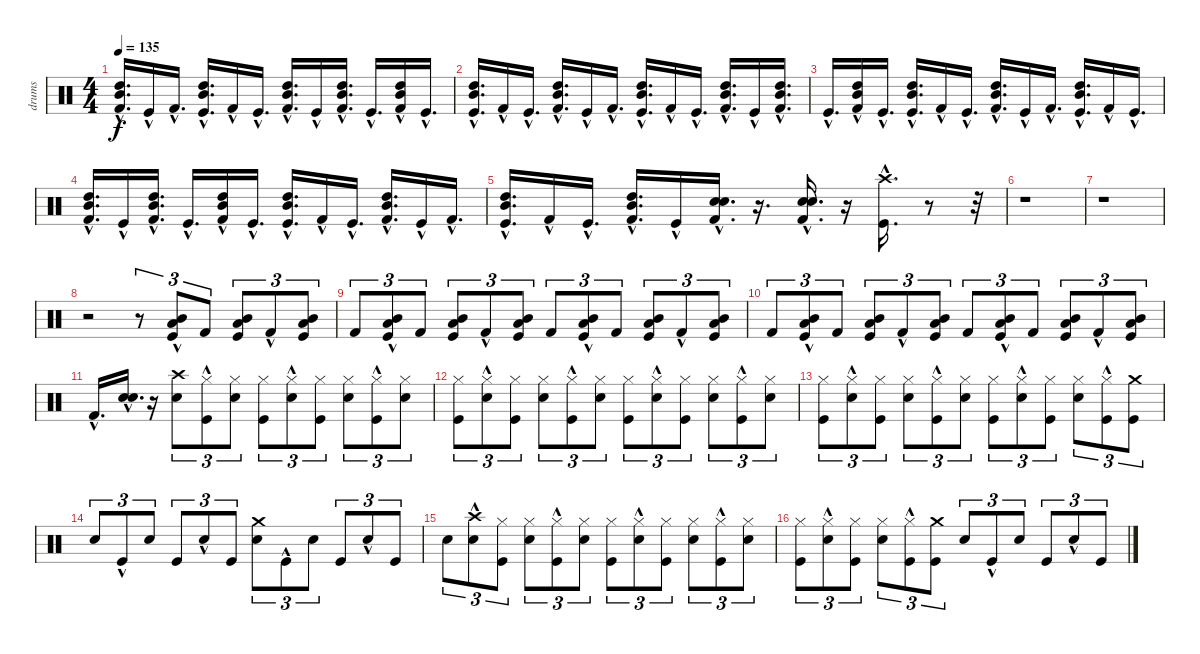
\track ("drums" "drums") {instrument percussion}
\staff {score}
\articulation defaults
\ts (4 4)
\tempo 135
\clef neutral
\ks c
("High Tom (hit)"{hac} "Mid Tom (hit)"{hac} "Kick (hit) 2"{hac}).16{d dy f} "Kick (hit)"{hac}.16 "Kick (hit) 2"{hac}.16{d} ("High Tom (hit)"{hac} "Mid Tom (hit)"{hac} "Kick (hit)"{hac}).16{d} "Kick (hit) 2"{hac}.16 "Kick (hit)"{hac}.16{d} ("Mid Tom (hit)"{hac} "High Tom (hit)"{hac} "Kick (hit) 2"{hac}).16{d} "Kick (hit)"{hac}.16 ("Mid Tom (hit)"{hac} "Kick (hit) 2"{hac} "High Tom (hit)"{hac}).16{d} "Kick (hit)"{hac}.16{d} ("Kick (hit) 2"{hac} "High Tom (hit)"{hac} "Mid Tom (hit)"{hac}).16 "Kick (hit)"{hac}.16{d} |
("High Tom (hit)"{hac} "Mid Tom (hit)"{hac} "Kick (hit)"{hac}).16{d} "Kick (hit) 2"{hac}.16 "Kick (hit)"{hac}.16{d} ("High Tom (hit)"{hac} "Mid Tom (hit)"{hac} "Kick (hit) 2"{hac}).16{d} "Kick (hit)"{hac}.16 "Kick (hit) 2"{hac}.16{d} ("High Tom (hit)"{hac} "Mid Tom (hit)"{hac} "Kick (hit)"{hac}).16{d} "Kick (hit) 2"{hac}.16 "Kick (hit)"{hac}.16{d} ("Mid Tom (hit)"{hac} "High Tom (hit)"{hac} "Kick (hit) 2"{hac}).16{d} "Kick (hit)"{hac}.16 ("Mid Tom (hit)"{hac} "Kick (hit) 2"{hac} "High Tom (hit)"{hac}).16{d} |
"Kick (hit)"{hac}.16{d} ("Kick (hit) 2"{hac} "High Tom (hit)"{hac} "Mid Tom (hit)"{hac}).16 "Kick (hit)"{hac}.16{d} ("High Tom (hit)"{hac} "Mid Tom (hit)"{hac} "Kick (hit)"{hac}).16{d} "Kick (hit) 2"{hac}.16 "Kick (hit)"{hac}.16{d} ("High Tom (hit)"{hac} "Mid Tom (hit)"{hac} "Kick (hit) 2"{hac}).16{d} "Kick (hit)"{hac}.16 "Kick (hit) 2"{hac}.16{d} ("High Tom (hit)"{hac} "Mid Tom (hit)"{hac} "Kick (hit)"{hac}).16{d} "Kick (hit) 2"{hac}.16 "Kick (hit)"{hac}.16{d} |
("Mid Tom (hit)"{hac} "High Tom (hit)"{hac} "Kick (hit) 2"{hac}).16{d} "Kick (hit)"{hac}.16 ("Mid Tom (hit)"{hac} "Kick (hit) 2"{hac} "High Tom (hit)"{hac}).16{d} "Kick (hit)"{hac}.16{d} ("Kick (hit) 2"{hac} "High Tom (hit)"{hac} "Mid Tom (hit)"{hac}).16 "Kick (hit)"{hac}.16{d} ("High Tom (hit)"{hac} "Mid Tom (hit)"{hac} "Kick (hit)"{hac}).16{d} "Kick (hit) 2"{hac}.16 "Kick (hit)"{hac}.16{d} ("High Tom (hit)"{hac} "Mid Tom (hit)"{hac} "Kick (hit) 2"{hac}).16{d} "Kick (hit)"{hac}.16 "Kick (hit) 2"{hac}.16{d} |
("High Tom (hit)"{hac} "Mid Tom (hit)"{hac} "Kick (hit)"{hac}).16{d} "Kick (hit) 2"{hac}.16 "Kick (hit)"{hac}.16{d} ("Mid Tom (hit)"{hac} "High Tom (hit)"{hac} "Kick (hit) 2"{hac}).16{d} "Kick (hit)"{hac}.16 ("Snare (hit) 2"{hac} "Kick (hit) 2"{hac} "Snare (hit) 2"{hac}).16{d} r.16{d} ("Kick (hit) 2"{hac} "Snare (hit) 2"{hac} "Snare (hit) 2"{hac}).16{d} r.16 ("Crash high (hit)"{hac} "Kick (hit)"{hac}).16{d} r.8 r.32 |
r.1 |
r.1 |
r.2 r.8{tu (3 2)} ("Low Tom (hit)"{hac} "Mid Tom (hit)"{hac} "Kick (hit)"{hac}).8{tu (3 2)} "Kick (hit) 2".8{tu (3 2)} ("Mid Tom (hit)" "Low Tom (hit)" "Kick (hit)").8{tu (3 2)} "Kick (hit) 2"{hac}.8{tu (3 2)} ("Mid Tom (hit)" "Low Tom (hit)" "Kick (hit)").8{tu (3 2)} |
"Kick (hit) 2".8{tu (3 2)} ("Mid Tom (hit)"{hac} "Low Tom (hit)"{hac} "Kick (hit)"{hac}).8{tu (3 2)} "Kick (hit) 2".8{tu (3 2)} ("Mid Tom (hit)" "Low Tom (hit)" "Kick (hit)").8{tu (3 2)} "Kick (hit) 2"{hac}.8{tu (3 2)} ("Mid Tom (hit)" "Low Tom (hit)" "Kick (hit)").8{tu (3 2)} "Kick (hit) 2".8{tu (3 2)} ("Low Tom (hit)"{hac} "Mid Tom (hit)"{hac} "Kick (hit)"{hac}).8{tu (3 2)} "Kick (hit) 2".8{tu (3 2)} ("Mid Tom (hit)" "Low Tom (hit)" "Kick (hit)").8{tu (3 2)} "Kick (hit) 2"{hac}.8{tu (3 2)} ("Mid Tom (hit)" "Low Tom (hit)" "Kick (hit)").8{tu (3 2)} |
"Kick (hit) 2".8{tu (3 2)} ("Low Tom (hit)"{hac} "Kick (hit)"{hac} "Mid Tom (hit)"{hac}).8{tu (3 2)} "Kick (hit) 2".8{tu (3 2)} ("Low Tom (hit)" "Mid Tom (hit)" "Kick (hit)").8{tu (3 2)} "Kick (hit) 2"{hac}.8{tu (3 2)} ("Low Tom (hit)" "Mid Tom (hit)" "Kick (hit)").8{tu (3 2)} "Kick (hit) 2".8{tu (3 2)} ("Low Tom (hit)"{hac} "Mid Tom (hit)"{hac} "Kick (hit)"{hac}).8{tu (3 2)} "Kick (hit) 2".8{tu (3 2)} ("Mid Tom (hit)" "Low Tom (hit)" "Kick (hit)").8{tu (3 2)} "Kick (hit) 2"{hac}.8{tu (3 2)} ("Mid Tom (hit)" "Low Tom (hit)" "Kick (hit)").8{tu (3 2)} |
"Kick (hit) 2"{hac}.16{d} ("Snare (hit) 2"{hac} "Snare (hit) 2"{hac}).16{d} r.16 ("Snare (hit) 2" "Crash high (hit)").8{tu (3 2)} ("Hi-Hat (closed)"{hac} "Kick (hit)"{hac}).8{tu (3 2)} ("Snare (hit) 2" "Hi-Hat (closed)").8{tu (3 2)} ("Kick (hit)" "Hi-Hat (closed)").8{tu (3 2)} ("Snare (hit) 2"{hac} "Hi-Hat (closed)"{hac}).8{tu (3 2)} ("Kick (hit)" "Hi-Hat (closed)").8{tu (3 2)} ("Snare (hit) 2" "Hi-Hat (closed)").8{tu (3 2)} ("Kick (hit)"{hac} "Hi-Hat (closed)"{hac}).8{tu (3 2)} ("Hi-Hat (closed)" "Snare (hit) 2").8{tu (3 2)} |
("Hi-Hat (closed)" "Kick (hit)").8{tu (3 2)} ("Snare (hit) 2"{hac} "Hi-Hat (closed)"{hac}).8{tu (3 2)} ("Kick (hit)" "Hi-Hat (closed)").8{tu (3 2)} ("Snare (hit) 2" "Hi-Hat (closed)").8{tu (3 2)} ("Kick (hit)"{hac} "Hi-Hat (closed)"{hac}).8{tu (3 2)} ("Snare (hit) 2" "Hi-Hat (closed)").8{tu (3 2)} ("Kick (hit)" "Hi-Hat (closed)").8{tu (3 2)} ("Hi-Hat (closed)"{hac} "Snare (hit) 2"{hac}).8{tu (3 2)} ("Hi-Hat (closed)" "Kick (hit)").8{tu (3 2)} ("Snare (hit) 2" "Hi-Hat (closed)").8{tu (3 2)} ("Kick (hit)"{hac} "Hi-Hat (closed)"{hac}).8{tu (3 2)} ("Snare (hit) 2" "Hi-Hat (closed)").8{tu (3 2)} |
("Kick (hit)" "Hi-Hat (closed)").8{tu (3 2)} ("Snare (hit) 2"{hac} "Hi-Hat (closed)"{hac}).8{tu (3 2)} ("Kick (hit)" "Hi-Hat (closed)").8{tu (3 2)} ("Hi-Hat (closed)" "Snare (hit) 2").8{tu (3 2)} ("Hi-Hat (closed)"{hac} "Kick (hit)"{hac}).8{tu (3 2)} ("Snare (hit) 2" "Hi-Hat (closed)").8{tu (3 2)} ("Kick (hit)" "Hi-Hat (closed)").8{tu (3 2)} ("Snare (hit) 2"{hac} "Hi-Hat (closed)"{hac}).8{tu (3 2)} ("Kick (hit)" "Hi-Hat (closed)").8{tu (3 2)} ("Snare (hit) 2" "Hi-Hat (closed)").8{tu (3 2)} ("Hi-Hat (closed)"{hac} "Kick (hit)"{hac}).8{tu (3 2)} ("Crash medium (hit)" "Kick (hit)").8{tu (3 2)} |
"Snare (hit) 2".8{tu (3 2)} "Kick (hit)"{hac}.8{tu (3 2)} "Snare (hit) 2".8{tu (3 2)} "Kick (hit)".8{tu (3 2)} "Snare (hit) 2"{hac}.8{tu (3 2)} "Kick (hit)".8{tu (3 2)} ("Crash medium (hit)" "Snare (hit) 2").8{tu (3 2)} "Kick (hit)"{hac}.8{tu (3 2)} "Snare (hit) 2".8{tu (3 2)} "Kick (hit)".8{tu (3 2)} "Snare (hit) 2"{hac}.8{tu (3 2)} "Kick (hit)".8{tu (3 2)} |
"Snare (hit) 2".8{tu (3 2)} ("Crash high (hit)"{hac} "Snare (hit) 2"{hac}).8{tu (3 2)} ("Hi-Hat (closed)" "Kick (hit)").8{tu (3 2)} ("Snare (hit) 2" "Hi-Hat (closed)").8{tu (3 2)} ("Kick (hit)"{hac} "Hi-Hat (closed)"{hac}).8{tu (3 2)} ("Snare (hit) 2" "Hi-Hat (closed)").8{tu (3 2)} ("Kick (hit)" "Hi-Hat (closed)").8{tu (3 2)} ("Snare (hit) 2"{hac} "Hi-Hat (closed)"{hac}).8{tu (3 2)} ("Kick (hit)" "Hi-Hat (closed)").8{tu (3 2)} ("Hi-Hat (closed)" "Snare (hit) 2").8{tu (3 2)} ("Hi-Hat (closed)"{hac} "Kick (hit)"{hac}).8{tu (3 2)} ("Snare (hit) 2" "Hi-Hat (closed)").8{tu (3 2)} |
("Kick (hit)" "Hi-Hat (closed)").8{tu (3 2)} ("Snare (hit) 2"{hac} "Hi-Hat (closed)"{hac}).8{tu (3 2)} ("Kick (hit)" "Hi-Hat (closed)").8{tu (3 2)} ("Snare (hit) 2" "Hi-Hat (closed)").8{tu (3 2)} ("Hi-Hat (closed)"{hac} "Kick (hit)"{hac}).8{tu (3 2)} ("Crash medium (hit)" "Kick (hit)").8{tu (3 2)} "Snare (hit) 2".8{tu (3 2)} "Kick (hit)"{hac}.8{tu (3 2)} "Snare (hit) 2".8{tu (3 2)} "Kick (hit)".8{tu (3 2)} "Snare (hit) 2"{hac}.8{tu (3 2)} "Kick (hit)".8{tu (3 2)}
